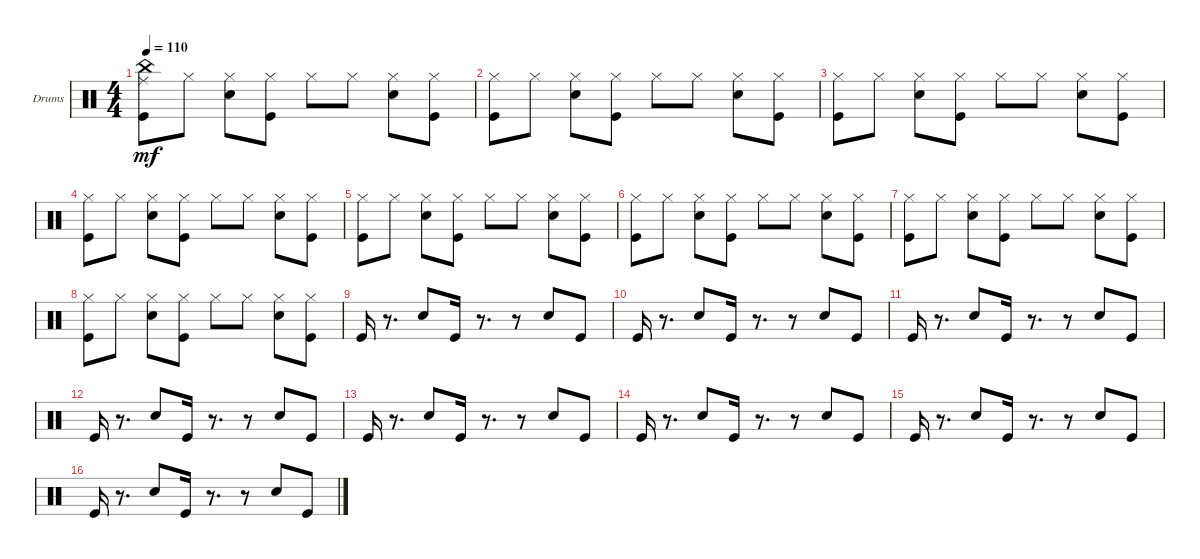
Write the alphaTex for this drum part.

\defaultSystemsLayout 4
\bracketExtendMode groupsimilarinstruments
\firstSystemTrackNameOrientation horizontal
\otherSystemsTrackNameOrientation horizontal
\track ("Drumkit" "Drums") {instrument percussion}
\staff {score}
\articulation defaults
\ts (4 4)
\tempo 110
\clef neutral
\ks c
("Kick (hit)" "Ride (middle)" "China (hit)").8{dy mf} "Hi-Hat (closed)".8 ("Snare (hit) 2" "Hi-Hat (closed)").8 ("Kick (hit)" "Hi-Hat (closed)").8 "Hi-Hat (closed)".8 "Hi-Hat (closed)".8 ("Snare (hit) 2" "Hi-Hat (closed)").8 ("Hi-Hat (closed)" "Kick (hit)").8 |
("Kick (hit)" "Hi-Hat (closed)").8 "Hi-Hat (closed)".8 ("Snare (hit) 2" "Hi-Hat (closed)").8 ("Kick (hit)" "Hi-Hat (closed)").8 "Hi-Hat (closed)".8 "Hi-Hat (closed)".8 ("Snare (hit) 2" "Hi-Hat (closed)").8 ("Hi-Hat (closed)" "Kick (hit)").8 |
("Kick (hit)" "Hi-Hat (closed)").8 "Hi-Hat (closed)".8 ("Snare (hit) 2" "Hi-Hat (closed)").8 ("Kick (hit)" "Hi-Hat (closed)").8 "Hi-Hat (closed)".8 "Hi-Hat (closed)".8 ("Snare (hit) 2" "Hi-Hat (closed)").8 ("Hi-Hat (closed)" "Kick (hit)").8 |
("Kick (hit)" "Hi-Hat (closed)").8 "Hi-Hat (closed)".8 ("Snare (hit) 2" "Hi-Hat (closed)").8 ("Kick (hit)" "Hi-Hat (closed)").8 "Hi-Hat (closed)".8 "Hi-Hat (closed)".8 ("Snare (hit) 2" "Hi-Hat (closed)").8 ("Hi-Hat (closed)" "Kick (hit)").8 |
("Kick (hit)" "Hi-Hat (closed)").8 "Hi-Hat (closed)".8 ("Snare (hit) 2" "Hi-Hat (closed)").8 ("Kick (hit)" "Hi-Hat (closed)").8 "Hi-Hat (closed)".8 "Hi-Hat (closed)".8 ("Snare (hit) 2" "Hi-Hat (closed)").8 ("Hi-Hat (closed)" "Kick (hit)").8 |
("Kick (hit)" "Hi-Hat (closed)").8 "Hi-Hat (closed)".8 ("Snare (hit) 2" "Hi-Hat (closed)").8 ("Kick (hit)" "Hi-Hat (closed)").8 "Hi-Hat (closed)".8 "Hi-Hat (closed)".8 ("Snare (hit) 2" "Hi-Hat (closed)").8 ("Hi-Hat (closed)" "Kick (hit)").8 |
("Kick (hit)" "Hi-Hat (closed)").8 "Hi-Hat (closed)".8 ("Snare (hit) 2" "Hi-Hat (closed)").8 ("Kick (hit)" "Hi-Hat (closed)").8 "Hi-Hat (closed)".8 "Hi-Hat (closed)".8 ("Snare (hit) 2" "Hi-Hat (closed)").8 ("Hi-Hat (closed)" "Kick (hit)").8 |
("Kick (hit)" "Hi-Hat (closed)").8 "Hi-Hat (closed)".8 ("Snare (hit) 2" "Hi-Hat (closed)").8 ("Kick (hit)" "Hi-Hat (closed)").8 "Hi-Hat (closed)".8 "Hi-Hat (closed)".8 ("Snare (hit) 2" "Hi-Hat (closed)").8 ("Hi-Hat (closed)" "Kick (hit)").8 |
"Kick (hit)".16 r.8{d} "Snare (hit) 2".8 "Kick (hit)".16 r.8{d} r.8 "Snare (hit) 2".8 "Kick (hit)".8 |
"Kick (hit)".16 r.8{d} "Snare (hit) 2".8 "Kick (hit)".16 r.8{d} r.8 "Snare (hit) 2".8 "Kick (hit)".8 |
"Kick (hit)".16 r.8{d} "Snare (hit) 2".8 "Kick (hit)".16 r.8{d} r.8 "Snare (hit) 2".8 "Kick (hit)".8 |
"Kick (hit)".16 r.8{d} "Snare (hit) 2".8 "Kick (hit)".16 r.8{d} r.8 "Snare (hit) 2".8 "Kick (hit)".8 |
"Kick (hit)".16 r.8{d} "Snare (hit) 2".8 "Kick (hit)".16 r.8{d} r.8 "Snare (hit) 2".8 "Kick (hit)".8 |
"Kick (hit)".16 r.8{d} "Snare (hit) 2".8 "Kick (hit)".16 r.8{d} r.8 "Snare (hit) 2".8 "Kick (hit)".8 |
"Kick (hit)".16 r.8{d} "Snare (hit) 2".8 "Kick (hit)".16 r.8{d} r.8 "Snare (hit) 2".8 "Kick (hit)".8 |
"Kick (hit)".16 r.8{d} "Snare (hit) 2".8 "Kick (hit)".16 r.8{d} r.8 "Snare (hit) 2".8 "Kick (hit)".8
